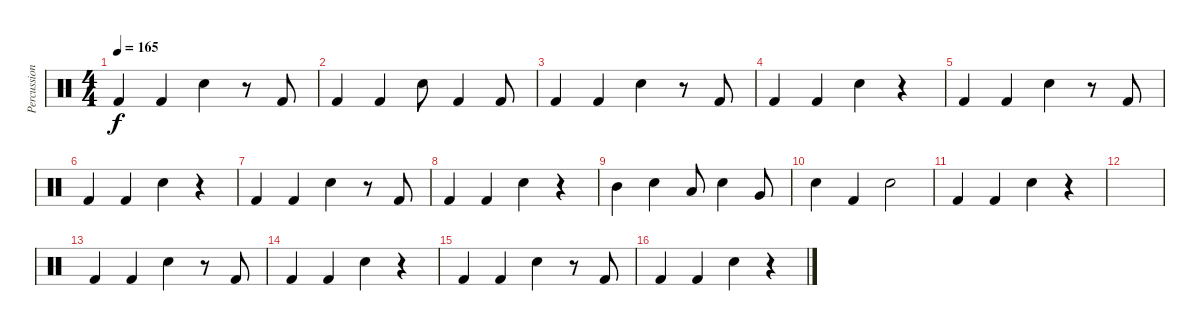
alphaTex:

\track ("Percussion" "Percussion") {instrument percussion}
\staff {score}
\articulation defaults
\ts (4 4)
\tempo 165
\clef neutral
\ks c "Kick (hit) 2".4{dy f} "Kick (hit) 2".4 "Electric Snare (hit)".4
r.8 "Kick (hit) 2".8 |
"Kick (hit) 2".4 "Kick (hit) 2".4 "Electric Snare (hit)".8 "Kick (hit) 2".4 "Kick (hit) 2".8 |
"Kick (hit) 2".4 "Kick (hit) 2".4 "Electric Snare (hit)".4 r.8 "Kick (hit) 2".8 |
"Kick (hit) 2".4 "Kick (hit) 2".4 "Electric Snare (hit)".4 r.4 |
"Kick (hit) 2".4 "Kick (hit) 2".4 "Electric Snare (hit)".4 r.8 "Kick (hit) 2".8 |
"Kick (hit) 2".4 "Kick (hit) 2".4 "Electric Snare (hit)".4 r.4 |
"Kick (hit) 2".4 "Kick (hit) 2".4 "Electric Snare (hit)".4 r.8 "Kick (hit) 2".8 |
"Kick (hit) 2".4 "Kick (hit) 2".4 "Electric Snare (hit)".4 r.4 |
"Mid Tom (hit)".4 "Electric Snare (hit)".4 "Low Tom (hit)".8 "Electric Snare (hit)".4 "Very Low Tom (hit)".8 |
"Electric Snare (hit)".4 "Kick (hit) 2".4 "Electric Snare (hit)".2 |
"Kick (hit) 2".4 "Kick (hit) 2".4 "Electric Snare (hit)".4 r.4 |
|
"Kick (hit) 2".4 "Kick (hit) 2".4 "Electric Snare (hit)".4 r.8 "Kick (hit) 2".8 |
"Kick (hit) 2".4 "Kick (hit) 2".4 "Electric Snare (hit)".4 r.4 |
"Kick (hit) 2".4 "Kick (hit) 2".4 "Electric Snare (hit)".4 r.8 "Kick (hit) 2".8 |
"Kick (hit) 2".4 "Kick (hit) 2".4 "Electric Snare (hit)".4 r.4
